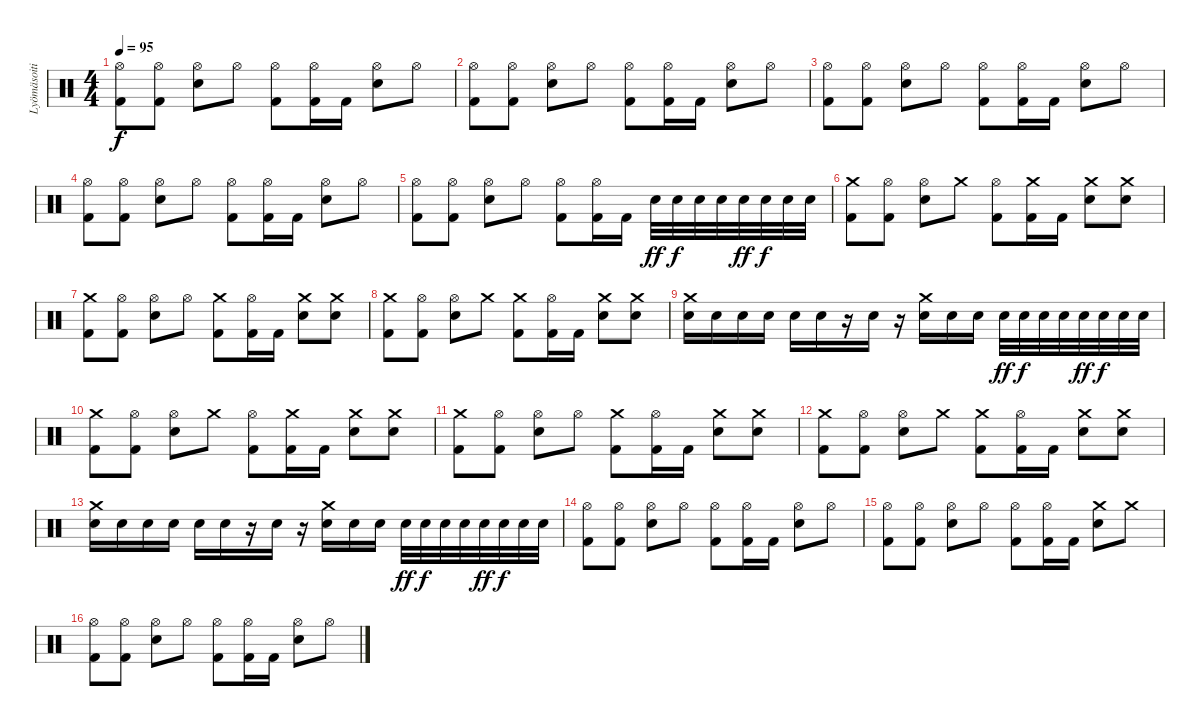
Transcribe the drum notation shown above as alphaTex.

\track ("Lyömäsoitin" "Lyömäsoiti") {instrument percussion}
\staff {score}
\articulation defaults
\ts (4 4)
\tempo 95
\clef neutral
\ks c
("Hi-Hat (open)" "Kick (hit) 2").8{dy f} ("Hi-Hat (open)" "Kick (hit) 2").8 ("Hi-Hat (open)" "Electric Snare (hit)").8 "Hi-Hat (open)".8 ("Hi-Hat (open)" "Kick (hit) 2").8 ("Hi-Hat (open)" "Kick (hit) 2").16 "Kick (hit) 2".16 ("Hi-Hat (open)" "Electric Snare (hit)").8 "Hi-Hat (open)".8 |
("Hi-Hat (open)" "Kick (hit) 2").8 ("Hi-Hat (open)" "Kick (hit) 2").8 ("Hi-Hat (open)" "Electric Snare (hit)").8 "Hi-Hat (open)".8 ("Hi-Hat (open)" "Kick (hit) 2").8 ("Hi-Hat (open)" "Kick (hit) 2").16 "Kick (hit) 2".16 ("Hi-Hat (open)" "Electric Snare (hit)").8 "Hi-Hat (open)".8 |
("Hi-Hat (open)" "Kick (hit) 2").8 ("Hi-Hat (open)" "Kick (hit) 2").8 ("Hi-Hat (open)" "Electric Snare (hit)").8 "Hi-Hat (open)".8 ("Hi-Hat (open)" "Kick (hit) 2").8 ("Hi-Hat (open)" "Kick (hit) 2").16 "Kick (hit) 2".16 ("Hi-Hat (open)" "Electric Snare (hit)").8 "Hi-Hat (open)".8 |
("Hi-Hat (open)" "Kick (hit) 2").8 ("Hi-Hat (open)" "Kick (hit) 2").8 ("Hi-Hat (open)" "Electric Snare (hit)").8 "Hi-Hat (open)".8 ("Hi-Hat (open)" "Kick (hit) 2").8 ("Hi-Hat (open)" "Kick (hit) 2").16 "Kick (hit) 2".16 ("Hi-Hat (open)" "Electric Snare (hit)").8 "Hi-Hat (open)".8 |
("Hi-Hat (open)" "Kick (hit) 2").8 ("Hi-Hat (open)" "Kick (hit) 2").8 ("Hi-Hat (open)" "Electric Snare (hit)").8 "Hi-Hat (open)".8 ("Hi-Hat (open)" "Kick (hit) 2").8 ("Hi-Hat (open)" "Kick (hit) 2").16 "Kick (hit) 2".16 "Electric Snare (hit)".32{dy ff} "Electric Snare (hit)".32{dy f} "Electric Snare (hit)".32 "Electric Snare (hit)".32 "Electric Snare (hit)".32{dy ff} "Electric Snare (hit)".32{dy f} "Electric Snare (hit)".32 "Electric Snare (hit)".32 |
("Crash medium (hit)" "Kick (hit) 2").8 ("Hi-Hat (open)" "Kick (hit) 2").8 ("Hi-Hat (open)" "Electric Snare (hit)").8 "Crash medium (hit)".8 ("Hi-Hat (open)" "Kick (hit) 2").8 ("Crash medium (hit)" "Kick (hit) 2").16 "Kick (hit) 2".16 ("Crash medium (hit)" "Electric Snare (hit)").8 ("Crash medium (hit)" "Electric Snare (hit)").8 |
("Crash medium (hit)" "Kick (hit) 2").8 ("Hi-Hat (open)" "Kick (hit) 2").8 ("Hi-Hat (open)" "Electric Snare (hit)").8 "Hi-Hat (open)".8 ("Crash medium (hit)" "Kick (hit) 2").8 ("Hi-Hat (open)" "Kick (hit) 2").16 "Kick (hit) 2".16 ("Crash medium (hit)" "Electric Snare (hit)").8 ("Crash medium (hit)" "Electric Snare (hit)").8 |
("Crash medium (hit)" "Kick (hit) 2").8 ("Hi-Hat (open)" "Kick (hit) 2").8 ("Hi-Hat (open)" "Electric Snare (hit)").8 "Crash medium (hit)".8 ("Crash medium (hit)" "Kick (hit) 2").8 ("Hi-Hat (open)" "Kick (hit) 2").16 "Kick (hit) 2".16 ("Crash medium (hit)" "Electric Snare (hit)").8 ("Crash medium (hit)" "Electric Snare (hit)").8 |
("Crash medium (hit)" "Electric Snare (hit)").16 "Electric Snare (hit)".16 "Electric Snare (hit)".16 "Electric Snare (hit)".16 "Electric Snare (hit)".16 "Electric Snare (hit)".16 r.16 "Electric Snare (hit)".16 r.16 ("Crash medium (hit)" "Electric Snare (hit)").16 "Electric Snare (hit)".16 "Electric Snare (hit)".16 "Electric Snare (hit)".32{dy ff} "Electric Snare (hit)".32{dy f} "Electric Snare (hit)".32 "Electric Snare (hit)".32 "Electric Snare (hit)".32{dy ff} "Electric Snare (hit)".32{dy f} "Electric Snare (hit)".32 "Electric Snare (hit)".32 |
("Crash medium (hit)" "Kick (hit) 2").8 ("Hi-Hat (open)" "Kick (hit) 2").8 ("Hi-Hat (open)" "Electric Snare (hit)").8 "Crash medium (hit)".8 ("Hi-Hat (open)" "Kick (hit) 2").8 ("Crash medium (hit)" "Kick (hit) 2").16 "Kick (hit) 2".16 ("Crash medium (hit)" "Electric Snare (hit)").8 ("Crash medium (hit)" "Electric Snare (hit)").8 |
("Crash medium (hit)" "Kick (hit) 2").8 ("Hi-Hat (open)" "Kick (hit) 2").8 ("Hi-Hat (open)" "Electric Snare (hit)").8 "Hi-Hat (open)".8 ("Crash medium (hit)" "Kick (hit) 2").8 ("Hi-Hat (open)" "Kick (hit) 2").16 "Kick (hit) 2".16 ("Crash medium (hit)" "Electric Snare (hit)").8 ("Crash medium (hit)" "Electric Snare (hit)").8 |
("Crash medium (hit)" "Kick (hit) 2").8 ("Hi-Hat (open)" "Kick (hit) 2").8 ("Hi-Hat (open)" "Electric Snare (hit)").8 "Crash medium (hit)".8 ("Crash medium (hit)" "Kick (hit) 2").8 ("Hi-Hat (open)" "Kick (hit) 2").16 "Kick (hit) 2".16 ("Crash medium (hit)" "Electric Snare (hit)").8 ("Crash medium (hit)" "Electric Snare (hit)").8 |
("Crash medium (hit)" "Electric Snare (hit)").16 "Electric Snare (hit)".16 "Electric Snare (hit)".16 "Electric Snare (hit)".16 "Electric Snare (hit)".16 "Electric Snare (hit)".16 r.16 "Electric Snare (hit)".16 r.16 ("Crash medium (hit)" "Electric Snare (hit)").16 "Electric Snare (hit)".16 "Electric Snare (hit)".16 "Electric Snare (hit)".32{dy ff} "Electric Snare (hit)".32{dy f} "Electric Snare (hit)".32 "Electric Snare (hit)".32 "Electric Snare (hit)".32{dy ff} "Electric Snare (hit)".32{dy f} "Electric Snare (hit)".32 "Electric Snare (hit)".32 |
("Hi-Hat (open)" "Kick (hit) 2").8 ("Hi-Hat (open)" "Kick (hit) 2").8 ("Hi-Hat (open)" "Electric Snare (hit)").8 "Hi-Hat (open)".8 ("Hi-Hat (open)" "Kick (hit) 2").8 ("Hi-Hat (open)" "Kick (hit) 2").16 "Kick (hit) 2".16 ("Hi-Hat (open)" "Electric Snare (hit)").8 "Hi-Hat (open)".8 |
("Hi-Hat (open)" "Kick (hit) 2").8 ("Hi-Hat (open)" "Kick (hit) 2").8 ("Hi-Hat (open)" "Electric Snare (hit)").8 "Hi-Hat (open)".8 ("Hi-Hat (open)" "Kick (hit) 2").8 ("Hi-Hat (open)" "Kick (hit) 2").16 "Kick (hit) 2".16 ("Crash medium (hit)" "Electric Snare (hit)").8 "Crash medium (hit)".8 |
("Hi-Hat (open)" "Kick (hit) 2").8 ("Hi-Hat (open)" "Kick (hit) 2").8 ("Hi-Hat (open)" "Electric Snare (hit)").8 "Hi-Hat (open)".8 ("Hi-Hat (open)" "Kick (hit) 2").8 ("Hi-Hat (open)" "Kick (hit) 2").16 "Kick (hit) 2".16 ("Hi-Hat (open)" "Electric Snare (hit)").8 "Hi-Hat (open)".8
